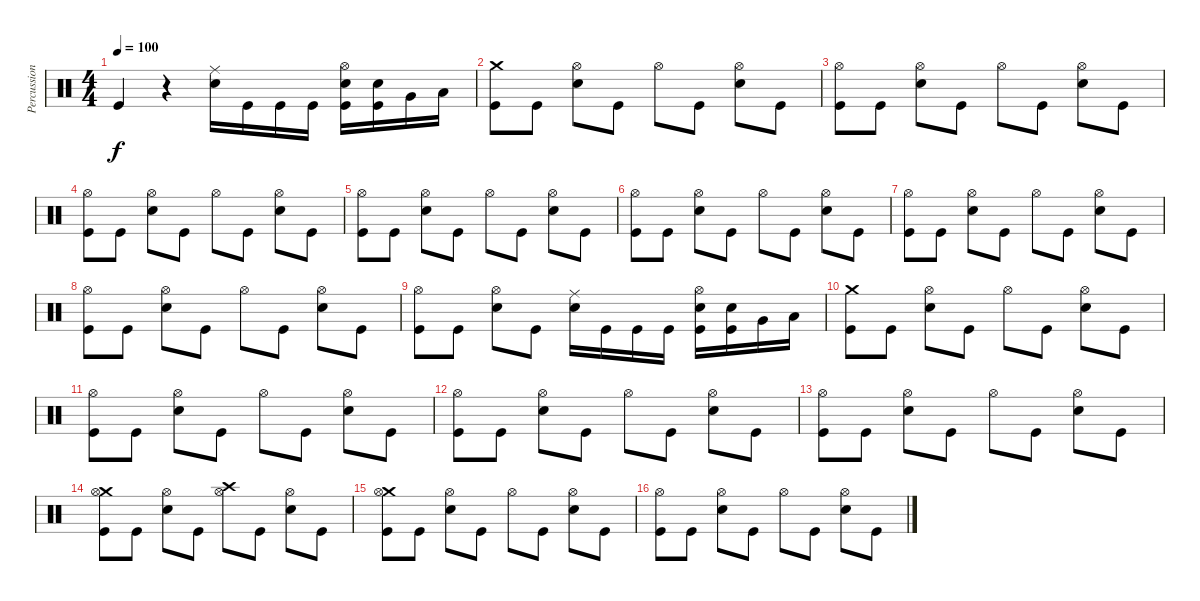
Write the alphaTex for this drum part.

\track ("Percussion" "Percussion") {instrument percussion}
\staff {score}
\articulation defaults
\ts (4 4)
\tempo 100
\clef neutral
\ks c "Kick (hit)".4{dy f}
r.4 ("Ride (middle)" "Electric Snare (hit)").16 "Kick (hit)".16 "Kick (hit)".16 "Kick (hit)".16 ("Hi-Hat (open)" "Electric Snare (hit)" "Kick (hit)").16 ("Electric Snare (hit)" "Kick (hit)").16 "Very Low Tom (hit)".16 "Low Floor Tom (hit)".16 |
("Crash medium (hit)" "Kick (hit)").8 "Kick (hit)".8 ("Hi-Hat (open)" "Electric Snare (hit)").8 "Kick (hit)".8 "Hi-Hat (open)".8 "Kick (hit)".8 ("Hi-Hat (open)" "Electric Snare (hit)").8 "Kick (hit)".8 |
("Hi-Hat (open)" "Kick (hit)").8 "Kick (hit)".8 ("Hi-Hat (open)" "Electric Snare (hit)").8 "Kick (hit)".8 "Hi-Hat (open)".8 "Kick (hit)".8 ("Hi-Hat (open)" "Electric Snare (hit)").8 "Kick (hit)".8 |
("Hi-Hat (open)" "Kick (hit)").8 "Kick (hit)".8 ("Hi-Hat (open)" "Electric Snare (hit)").8 "Kick (hit)".8 "Hi-Hat (open)".8 "Kick (hit)".8 ("Hi-Hat (open)" "Electric Snare (hit)").8 "Kick (hit)".8 |
("Hi-Hat (open)" "Kick (hit)").8 "Kick (hit)".8 ("Hi-Hat (open)" "Electric Snare (hit)").8 "Kick (hit)".8 "Hi-Hat (open)".8 "Kick (hit)".8 ("Hi-Hat (open)" "Electric Snare (hit)").8 "Kick (hit)".8 |
("Hi-Hat (open)" "Kick (hit)").8 "Kick (hit)".8 ("Hi-Hat (open)" "Electric Snare (hit)").8 "Kick (hit)".8 "Hi-Hat (open)".8 "Kick (hit)".8 ("Hi-Hat (open)" "Electric Snare (hit)").8 "Kick (hit)".8 |
("Hi-Hat (open)" "Kick (hit)").8 "Kick (hit)".8 ("Hi-Hat (open)" "Electric Snare (hit)").8 "Kick (hit)".8 "Hi-Hat (open)".8 "Kick (hit)".8 ("Hi-Hat (open)" "Electric Snare (hit)").8 "Kick (hit)".8 |
("Hi-Hat (open)" "Kick (hit)").8 "Kick (hit)".8 ("Hi-Hat (open)" "Electric Snare (hit)").8 "Kick (hit)".8 "Hi-Hat (open)".8 "Kick (hit)".8 ("Hi-Hat (open)" "Electric Snare (hit)").8 "Kick (hit)".8 |
("Hi-Hat (open)" "Kick (hit)").8 "Kick (hit)".8 ("Hi-Hat (open)" "Electric Snare (hit)").8 "Kick (hit)".8 ("Ride (middle)" "Electric Snare (hit)").16 "Kick (hit)".16 "Kick (hit)".16 "Kick (hit)".16 ("Hi-Hat (open)" "Electric Snare (hit)" "Kick (hit)").16 ("Electric Snare (hit)" "Kick (hit)").16 "Very Low Tom (hit)".16 "Low Floor Tom (hit)".16 |
("Crash medium (hit)" "Kick (hit)").8 "Kick (hit)".8 ("Hi-Hat (open)" "Electric Snare (hit)").8 "Kick (hit)".8 "Hi-Hat (open)".8 "Kick (hit)".8 ("Hi-Hat (open)" "Electric Snare (hit)").8 "Kick (hit)".8 |
("Hi-Hat (open)" "Kick (hit)").8 "Kick (hit)".8 ("Hi-Hat (open)" "Electric Snare (hit)").8 "Kick (hit)".8 "Hi-Hat (open)".8 "Kick (hit)".8 ("Hi-Hat (open)" "Electric Snare (hit)").8 "Kick (hit)".8 |
("Hi-Hat (open)" "Kick (hit)").8 "Kick (hit)".8 ("Hi-Hat (open)" "Electric Snare (hit)").8 "Kick (hit)".8 "Hi-Hat (open)".8 "Kick (hit)".8 ("Hi-Hat (open)" "Electric Snare (hit)").8 "Kick (hit)".8 |
("Hi-Hat (open)" "Kick (hit)").8 "Kick (hit)".8 ("Hi-Hat (open)" "Electric Snare (hit)").8 "Kick (hit)".8 "Hi-Hat (open)".8 "Kick (hit)".8 ("Hi-Hat (open)" "Electric Snare (hit)").8 "Kick (hit)".8 |
("Crash medium (hit)" "Hi-Hat (open)" "Kick (hit)").8 "Kick (hit)".8 ("Hi-Hat (open)" "Electric Snare (hit)").8 "Kick (hit)".8 ("Crash high (hit)" "Hi-Hat (open)").8 "Kick (hit)".8 ("Hi-Hat (open)" "Electric Snare (hit)").8 "Kick (hit)".8 |
("Crash medium (hit)" "Hi-Hat (open)" "Kick (hit)").8 "Kick (hit)".8 ("Hi-Hat (open)" "Electric Snare (hit)").8 "Kick (hit)".8 "Hi-Hat (open)".8 "Kick (hit)".8 ("Hi-Hat (open)" "Electric Snare (hit)").8 "Kick (hit)".8 |
("Hi-Hat (open)" "Kick (hit)").8 "Kick (hit)".8 ("Hi-Hat (open)" "Electric Snare (hit)").8 "Kick (hit)".8 "Hi-Hat (open)".8 "Kick (hit)".8 ("Hi-Hat (open)" "Electric Snare (hit)").8 "Kick (hit)".8
